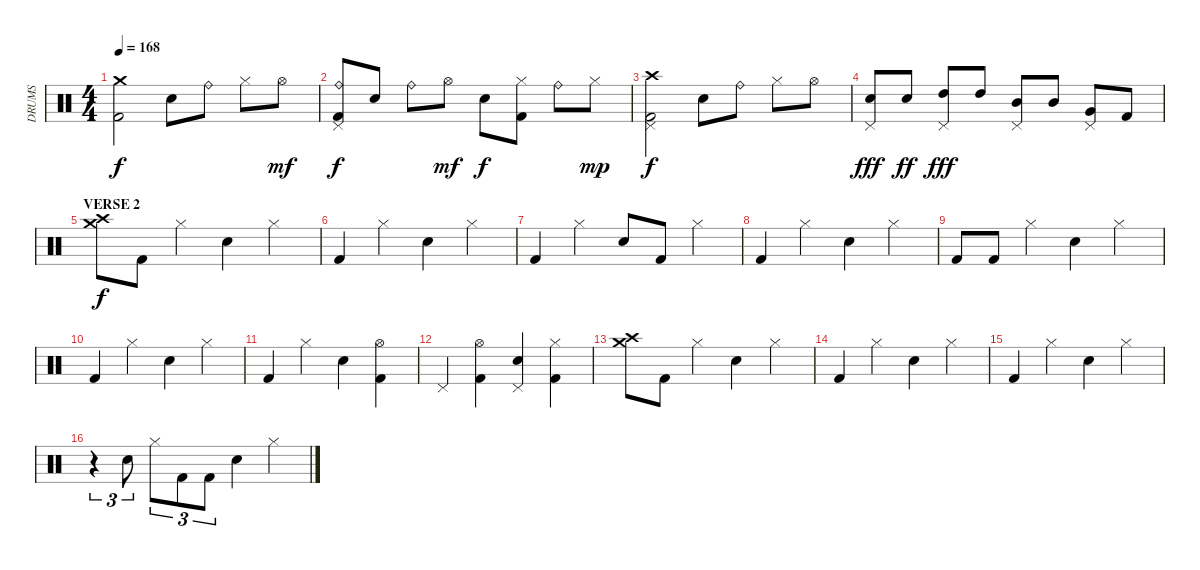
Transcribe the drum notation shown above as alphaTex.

\track ("DRUMS" "DRUMS") {instrument percussion}
\staff {score}
\articulation defaults
\ts (4 4)
\tempo 168
\clef neutral
\ks c
("Crash medium (hit)" "Kick (hit) 2").2{dy f} "Electric Snare (hit)".8 "Ride (bell)".8 "Hi-Hat (closed)".8 "Hi-Hat (open)".8{dy mf} |
("Ride (bell)" "Pedal Hi-Hat (hit)" "Kick (hit) 2").8{dy f} "Electric Snare (hit)".8 "Ride (bell)".8 "Hi-Hat (open)".8{dy mf} "Electric Snare (hit)".8{dy f} ("Hi-Hat (closed)" "Kick (hit) 2").8 "Ride (bell)".8 "Hi-Hat (closed)".8{dy mp} |
("Crash high (hit)" "Pedal Hi-Hat (hit)" "Kick (hit) 2").2{dy f} "Electric Snare (hit)".8 "Ride (bell)".8 "Hi-Hat (closed)".8 "Hi-Hat (open)".8 |
("Electric Snare (hit)" "Pedal Hi-Hat (hit)").8{dy fff} "Electric Snare (hit)".8{dy ff} ("High Tom (hit)" "Pedal Hi-Hat (hit)").8{dy fff} "High Tom (hit)".8 ("Mid Tom (hit)" "Pedal Hi-Hat (hit)").8 "Mid Tom (hit)".8 ("Very Low Tom (hit)" "Pedal Hi-Hat (hit)").8 "Kick (hit) 2".8 |
\section ("" "VERSE 2")
("Crash medium (hit)" "Crash high (hit)").8{dy f} "Kick (hit) 2".8 "Hi-Hat (closed)".4 "Electric Snare (hit)".4 "Hi-Hat (closed)".4 |
"Kick (hit) 2".4 "Hi-Hat (closed)".4 "Electric Snare (hit)".4 "Hi-Hat (closed)".4 |
"Kick (hit) 2".4 "Hi-Hat (closed)".4 "Electric Snare (hit)".8 "Kick (hit) 2".8 "Hi-Hat (closed)".4 |
"Kick (hit) 2".4 "Hi-Hat (closed)".4 "Electric Snare (hit)".4 "Hi-Hat (closed)".4 |
"Kick (hit) 2".8 "Kick (hit) 2".8 "Hi-Hat (closed)".4 "Electric Snare (hit)".4 "Hi-Hat (closed)".4 |
"Kick (hit) 2".4 "Hi-Hat (closed)".4 "Electric Snare (hit)".4 "Hi-Hat (closed)".4 |
"Kick (hit) 2".4 "Hi-Hat (closed)".4 "Electric Snare (hit)".4 ("Hi-Hat (open)" "Kick (hit) 2").4 |
"Pedal Hi-Hat (hit)".4 ("Hi-Hat (open)" "Kick (hit) 2").4 ("Electric Snare (hit)" "Pedal Hi-Hat (hit)").4 ("Hi-Hat (closed)" "Kick (hit) 2").4 |
("Crash medium (hit)" "Crash high (hit)").8 "Kick (hit) 2".8 "Hi-Hat (closed)".4 "Electric Snare (hit)".4 "Hi-Hat (closed)".4 |
"Kick (hit) 2".4 "Hi-Hat (closed)".4 "Electric Snare (hit)".4 "Hi-Hat (closed)".4 |
"Kick (hit) 2".4 "Hi-Hat (closed)".4 "Electric Snare (hit)".4 "Hi-Hat (closed)".4 |
r.4{tu (3 2)} "Electric Snare (hit)".8{tu (3 2)} "Hi-Hat (closed)".8{tu (3 2)} "Kick (hit) 2".8{tu (3 2)} "Kick (hit) 2".8{tu (3 2)} "Electric Snare (hit)".4 "Hi-Hat (closed)".4
